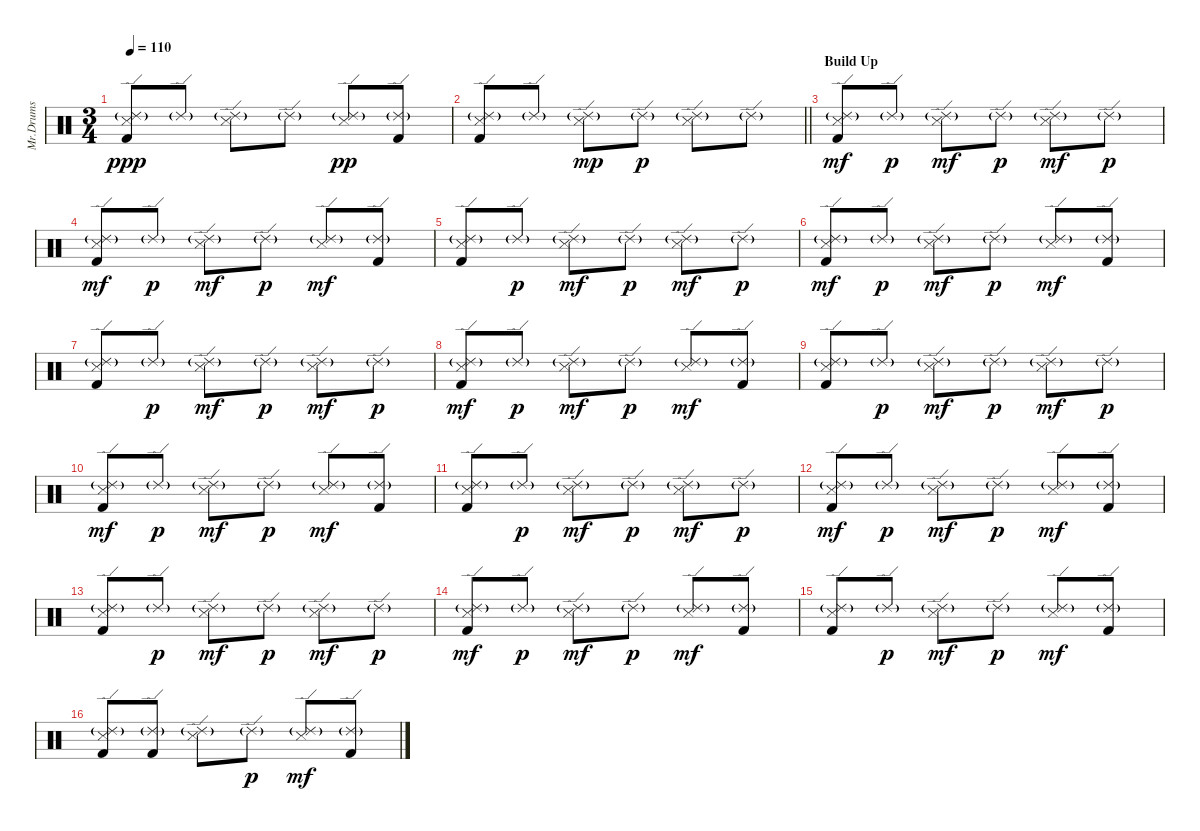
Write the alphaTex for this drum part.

\track ("Mr.Drums" "Mr.Drums") {instrument percussion}
\staff {score}
\articulation defaults
\ts (3 4)
\tempo 110
\clef neutral
\ks c
("Ride (edge) 2"{g} "Snare (side stick) 3" "Kick (hit) 2").8{dy ppp} "Ride (edge) 2"{g}.8 ("Ride (edge) 2"{g} "Snare (side stick) 3").8 "Ride (edge) 2"{g}.8 ("Ride (edge) 2"{g} "Snare (side stick) 3").8{dy pp} ("Ride (edge) 2"{g} "Kick (hit) 2").8 |
\barLineRight lightlight
("Ride (edge) 2"{g} "Snare (side stick) 3" "Kick (hit) 2").8 "Ride (edge) 2"{g}.8 ("Ride (edge) 2"{g} "Snare (side stick) 3").8{dy mp} "Ride (edge) 2"{g}.8{dy p} ("Ride (edge) 2"{g} "Snare (side stick) 3").8 "Ride (edge) 2"{g}.8 |
\section ("" "Build Up")
("Ride (edge) 2"{g} "Snare (side stick) 3" "Kick (hit) 2").8{dy mf} "Ride (edge) 2"{g}.8{dy p} ("Ride (edge) 2"{g} "Snare (side stick) 3").8{dy mf} "Ride (edge) 2"{g}.8{dy p} ("Ride (edge) 2"{g} "Snare (side stick) 3").8{dy mf} "Ride (edge) 2"{g}.8{dy p} |
("Ride (edge) 2"{g} "Snare (side stick) 3" "Kick (hit) 2").8{dy mf} "Ride (edge) 2"{g}.8{dy p} ("Ride (edge) 2"{g} "Snare (side stick) 3").8{dy mf} "Ride (edge) 2"{g}.8{dy p} ("Ride (edge) 2"{g} "Snare (side stick) 3").8{dy mf} ("Ride (edge) 2"{g} "Kick (hit) 2").8 |
("Ride (edge) 2"{g} "Snare (side stick) 3" "Kick (hit) 2").8 "Ride (edge) 2"{g}.8{dy p} ("Ride (edge) 2"{g} "Snare (side stick) 3").8{dy mf} "Ride (edge) 2"{g}.8{dy p} ("Ride (edge) 2"{g} "Snare (side stick) 3").8{dy mf} "Ride (edge) 2"{g}.8{dy p} |
("Ride (edge) 2"{g} "Snare (side stick) 3" "Kick (hit) 2").8{dy mf} "Ride (edge) 2"{g}.8{dy p} ("Ride (edge) 2"{g} "Snare (side stick) 3").8{dy mf} "Ride (edge) 2"{g}.8{dy p} ("Ride (edge) 2"{g} "Snare (side stick) 3").8{dy mf} ("Ride (edge) 2"{g} "Kick (hit) 2").8 |
("Ride (edge) 2"{g} "Snare (side stick) 3" "Kick (hit) 2").8 "Ride (edge) 2"{g}.8{dy p} ("Ride (edge) 2"{g} "Snare (side stick) 3").8{dy mf} "Ride (edge) 2"{g}.8{dy p} ("Ride (edge) 2"{g} "Snare (side stick) 3").8{dy mf} "Ride (edge) 2"{g}.8{dy p} |
("Ride (edge) 2"{g} "Snare (side stick) 3" "Kick (hit) 2").8{dy mf} "Ride (edge) 2"{g}.8{dy p} ("Ride (edge) 2"{g} "Snare (side stick) 3").8{dy mf} "Ride (edge) 2"{g}.8{dy p} ("Ride (edge) 2"{g} "Snare (side stick) 3").8{dy mf} ("Ride (edge) 2"{g} "Kick (hit) 2").8 |
("Ride (edge) 2"{g} "Snare (side stick) 3" "Kick (hit) 2").8 "Ride (edge) 2"{g}.8{dy p} ("Ride (edge) 2"{g} "Snare (side stick) 3").8{dy mf} "Ride (edge) 2"{g}.8{dy p} ("Ride (edge) 2"{g} "Snare (side stick) 3").8{dy mf} "Ride (edge) 2"{g}.8{dy p} |
("Ride (edge) 2"{g} "Snare (side stick) 3" "Kick (hit) 2").8{dy mf} "Ride (edge) 2"{g}.8{dy p} ("Ride (edge) 2"{g} "Snare (side stick) 3").8{dy mf} "Ride (edge) 2"{g}.8{dy p} ("Ride (edge) 2"{g} "Snare (side stick) 3").8{dy mf} ("Ride (edge) 2"{g} "Kick (hit) 2").8 |
("Ride (edge) 2"{g} "Snare (side stick) 3" "Kick (hit) 2").8 "Ride (edge) 2"{g}.8{dy p} ("Ride (edge) 2"{g} "Snare (side stick) 3").8{dy mf} "Ride (edge) 2"{g}.8{dy p} ("Ride (edge) 2"{g} "Snare (side stick) 3").8{dy mf} "Ride (edge) 2"{g}.8{dy p} |
("Ride (edge) 2"{g} "Snare (side stick) 3" "Kick (hit) 2").8{dy mf} "Ride (edge) 2"{g}.8{dy p} ("Ride (edge) 2"{g} "Snare (side stick) 3").8{dy mf} "Ride (edge) 2"{g}.8{dy p} ("Ride (edge) 2"{g} "Snare (side stick) 3").8{dy mf} ("Ride (edge) 2"{g} "Kick (hit) 2").8 |
("Ride (edge) 2"{g} "Snare (side stick) 3" "Kick (hit) 2").8 "Ride (edge) 2"{g}.8{dy p} ("Ride (edge) 2"{g} "Snare (side stick) 3").8{dy mf} "Ride (edge) 2"{g}.8{dy p} ("Ride (edge) 2"{g} "Snare (side stick) 3").8{dy mf} "Ride (edge) 2"{g}.8{dy p} |
("Ride (edge) 2"{g} "Snare (side stick) 3" "Kick (hit) 2").8{dy mf} "Ride (edge) 2"{g}.8{dy p} ("Ride (edge) 2"{g} "Snare (side stick) 3").8{dy mf} "Ride (edge) 2"{g}.8{dy p} ("Ride (edge) 2"{g} "Snare (side stick) 3").8{dy mf} ("Ride (edge) 2"{g} "Kick (hit) 2").8 |
("Ride (edge) 2"{g} "Snare (side stick) 3" "Kick (hit) 2").8 "Ride (edge) 2"{g}.8{dy p} ("Ride (edge) 2"{g} "Snare (side stick) 3").8{dy mf} "Ride (edge) 2"{g}.8{dy p} ("Ride (edge) 2"{g} "Snare (side stick) 3").8{dy mf} ("Ride (edge) 2"{g} "Kick (hit) 2").8 |
("Ride (edge) 2"{g} "Snare (side stick) 3" "Kick (hit) 2").8 ("Ride (edge) 2"{g} "Kick (hit) 2").8 ("Ride (edge) 2"{g} "Snare (side stick) 3").8 "Ride (edge) 2"{g}.8{dy p} ("Ride (edge) 2"{g} "Snare (side stick) 3").8{dy mf} ("Ride (edge) 2"{g} "Kick (hit) 2").8
